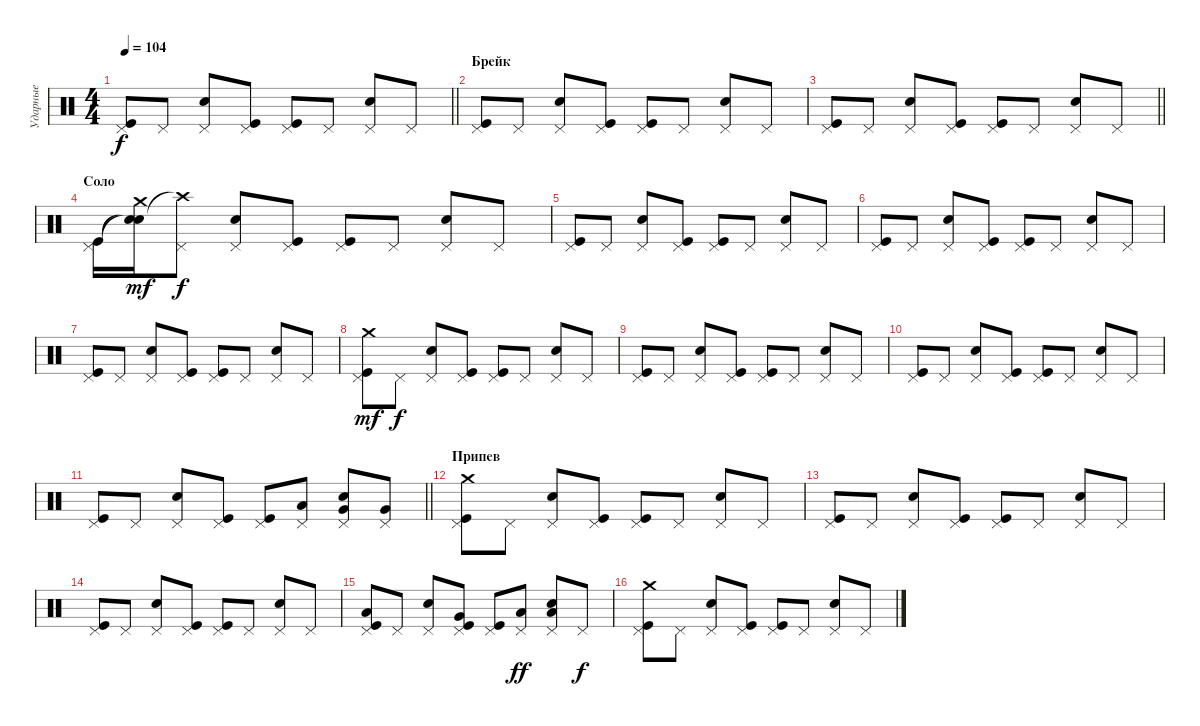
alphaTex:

\track ("Ударные" "Ударные") {instrument percussion}
\staff {score}
\articulation defaults
\ts (4 4)
\tempo 104
\clef neutral
\barLineRight lightlight
\ks c
("Pedal Hi-Hat (hit)" "Kick (hit)").8{dy f} "Pedal Hi-Hat (hit)".8 ("Pedal Hi-Hat (hit)" "Snare (hit) 2").8 ("Pedal Hi-Hat (hit)" "Kick (hit)").8 ("Pedal Hi-Hat (hit)" "Kick (hit)").8 "Pedal Hi-Hat (hit)".8 ("Pedal Hi-Hat (hit)" "Snare (hit) 2").8 "Pedal Hi-Hat (hit)".8 |
\section ("" "Брейк")
("Pedal Hi-Hat (hit)" "Kick (hit)").8 "Pedal Hi-Hat (hit)".8 ("Pedal Hi-Hat (hit)" "Snare (hit) 2").8 ("Pedal Hi-Hat (hit)" "Kick (hit)").8 ("Pedal Hi-Hat (hit)" "Kick (hit)").8 "Pedal Hi-Hat (hit)".8 ("Pedal Hi-Hat (hit)" "Snare (hit) 2").8 "Pedal Hi-Hat (hit)".8 |
\barLineRight lightlight
("Pedal Hi-Hat (hit)" "Kick (hit)").8 "Pedal Hi-Hat (hit)".8 ("Pedal Hi-Hat (hit)" "Snare (hit) 2").8 ("Pedal Hi-Hat (hit)" "Kick (hit)").8 ("Pedal Hi-Hat (hit)" "Kick (hit)").8 "Pedal Hi-Hat (hit)".8 ("Pedal Hi-Hat (hit)" "Snare (hit) 2").8 "Pedal Hi-Hat (hit)".8 |
\section ("" "Соло")
("Pedal Hi-Hat (hit)" "Kick (hit)").16 ("Snare (hit)"{t} "Snare (hit)"{t} "Crash medium (hit)").16{dy mf} ("Pedal Hi-Hat (hit)" "Crash high (hit)"{t}).8{dy f} ("Pedal Hi-Hat (hit)" "Snare (hit) 2").8 ("Pedal Hi-Hat (hit)" "Kick (hit)").8 ("Pedal Hi-Hat (hit)" "Kick (hit)").8 "Pedal Hi-Hat (hit)".8 ("Pedal Hi-Hat (hit)" "Snare (hit) 2").8 "Pedal Hi-Hat (hit)".8 |
("Pedal Hi-Hat (hit)" "Kick (hit)").8 "Pedal Hi-Hat (hit)".8 ("Pedal Hi-Hat (hit)" "Snare (hit) 2").8 ("Pedal Hi-Hat (hit)" "Kick (hit)").8 ("Pedal Hi-Hat (hit)" "Kick (hit)").8 "Pedal Hi-Hat (hit)".8 ("Pedal Hi-Hat (hit)" "Snare (hit) 2").8 "Pedal Hi-Hat (hit)".8 |
("Pedal Hi-Hat (hit)" "Kick (hit)").8 "Pedal Hi-Hat (hit)".8 ("Pedal Hi-Hat (hit)" "Snare (hit) 2").8 ("Pedal Hi-Hat (hit)" "Kick (hit)").8 ("Pedal Hi-Hat (hit)" "Kick (hit)").8 "Pedal Hi-Hat (hit)".8 ("Pedal Hi-Hat (hit)" "Snare (hit) 2").8 "Pedal Hi-Hat (hit)".8 |
("Pedal Hi-Hat (hit)" "Kick (hit)").8 "Pedal Hi-Hat (hit)".8 ("Pedal Hi-Hat (hit)" "Snare (hit) 2").8 ("Pedal Hi-Hat (hit)" "Kick (hit)").8 ("Pedal Hi-Hat (hit)" "Kick (hit)").8 "Pedal Hi-Hat (hit)".8 ("Pedal Hi-Hat (hit)" "Snare (hit) 2").8 "Pedal Hi-Hat (hit)".8 |
("Pedal Hi-Hat (hit)" "Kick (hit)" "Crash medium (hit)").8{dy mf} "Pedal Hi-Hat (hit)".8{dy f} ("Pedal Hi-Hat (hit)" "Snare (hit) 2").8 ("Pedal Hi-Hat (hit)" "Kick (hit)").8 ("Pedal Hi-Hat (hit)" "Kick (hit)").8 "Pedal Hi-Hat (hit)".8 ("Pedal Hi-Hat (hit)" "Snare (hit) 2").8 "Pedal Hi-Hat (hit)".8 |
("Pedal Hi-Hat (hit)" "Kick (hit)").8 "Pedal Hi-Hat (hit)".8 ("Pedal Hi-Hat (hit)" "Snare (hit) 2").8 ("Pedal Hi-Hat (hit)" "Kick (hit)").8 ("Pedal Hi-Hat (hit)" "Kick (hit)").8 "Pedal Hi-Hat (hit)".8 ("Pedal Hi-Hat (hit)" "Snare (hit) 2").8 "Pedal Hi-Hat (hit)".8 |
("Pedal Hi-Hat (hit)" "Kick (hit)").8 "Pedal Hi-Hat (hit)".8 ("Pedal Hi-Hat (hit)" "Snare (hit) 2").8 ("Pedal Hi-Hat (hit)" "Kick (hit)").8 ("Pedal Hi-Hat (hit)" "Kick (hit)").8 "Pedal Hi-Hat (hit)".8 ("Pedal Hi-Hat (hit)" "Snare (hit) 2").8 "Pedal Hi-Hat (hit)".8 |
\barLineRight lightlight
("Pedal Hi-Hat (hit)" "Kick (hit)").8 "Pedal Hi-Hat (hit)".8 ("Pedal Hi-Hat (hit)" "Snare (hit) 2").8 ("Pedal Hi-Hat (hit)" "Kick (hit)").8 ("Pedal Hi-Hat (hit)" "Kick (hit)").8 ("Pedal Hi-Hat (hit)" "Low Tom (hit)").8 ("Pedal Hi-Hat (hit)" "Snare (hit) 2" "Very Low Tom (hit)").8 ("Pedal Hi-Hat (hit)" "Very Low Tom (hit)").8 |
\section ("" "Припев")
("Pedal Hi-Hat (hit)" "Kick (hit)" "Crash medium (hit)").8 "Pedal Hi-Hat (hit)".8 ("Pedal Hi-Hat (hit)" "Snare (hit) 2").8 ("Pedal Hi-Hat (hit)" "Kick (hit)").8 ("Pedal Hi-Hat (hit)" "Kick (hit)").8 "Pedal Hi-Hat (hit)".8 ("Pedal Hi-Hat (hit)" "Snare (hit) 2").8 "Pedal Hi-Hat (hit)".8 |
("Pedal Hi-Hat (hit)" "Kick (hit)").8 "Pedal Hi-Hat (hit)".8 ("Pedal Hi-Hat (hit)" "Snare (hit) 2").8 ("Pedal Hi-Hat (hit)" "Kick (hit)").8 ("Pedal Hi-Hat (hit)" "Kick (hit)").8 "Pedal Hi-Hat (hit)".8 ("Pedal Hi-Hat (hit)" "Snare (hit) 2").8 "Pedal Hi-Hat (hit)".8 |
("Pedal Hi-Hat (hit)" "Kick (hit)").8 "Pedal Hi-Hat (hit)".8 ("Pedal Hi-Hat (hit)" "Snare (hit) 2").8 ("Pedal Hi-Hat (hit)" "Kick (hit)").8 ("Pedal Hi-Hat (hit)" "Kick (hit)").8 "Pedal Hi-Hat (hit)".8 ("Pedal Hi-Hat (hit)" "Snare (hit) 2").8 "Pedal Hi-Hat (hit)".8 |
("Pedal Hi-Hat (hit)" "Kick (hit)" "Low Floor Tom (hit)").8 "Pedal Hi-Hat (hit)".8 ("Pedal Hi-Hat (hit)" "Snare (hit) 2").8 ("Pedal Hi-Hat (hit)" "Kick (hit)" "Very Low Tom (hit)").8 ("Pedal Hi-Hat (hit)" "Kick (hit)").8 ("Pedal Hi-Hat (hit)" "Low Tom (hit)").8{dy ff} ("Pedal Hi-Hat (hit)" "Snare (hit) 2" "Low Tom (hit)").8 "Pedal Hi-Hat (hit)".8{dy f} |
("Pedal Hi-Hat (hit)" "Kick (hit)" "Crash medium (hit)").8 "Pedal Hi-Hat (hit)".8 ("Pedal Hi-Hat (hit)" "Snare (hit) 2").8 ("Pedal Hi-Hat (hit)" "Kick (hit)").8 ("Pedal Hi-Hat (hit)" "Kick (hit)").8 "Pedal Hi-Hat (hit)".8 ("Pedal Hi-Hat (hit)" "Snare (hit) 2").8 "Pedal Hi-Hat (hit)".8
